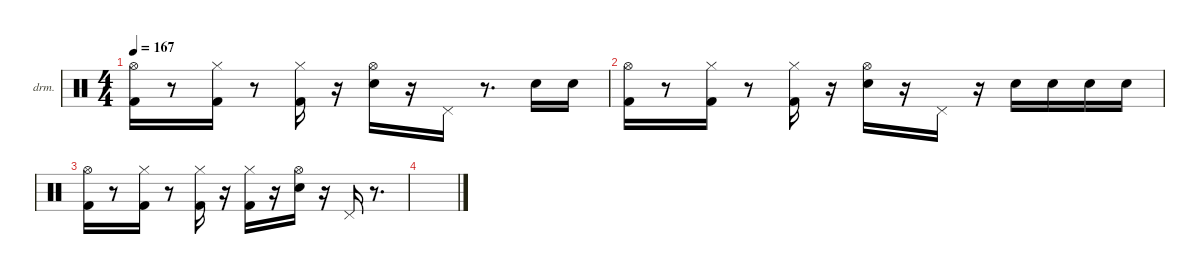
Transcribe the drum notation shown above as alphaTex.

\hideDynamics
\bracketExtendMode nobrackets
\firstSystemTrackNameOrientation horizontal
\otherSystemsTrackNameOrientation horizontal
\track ("Drums" "drm.") {instrument percussion}
\staff {score}
\articulation defaults
\ts (4 4)
\tempo 167
\clef neutral
\ks aminor
("Kick (hit) 2" "Hi-Hat (open)"{acc #}).16{dy fff} r.8 ("Kick (hit) 2" "Hi-Hat (closed)"{acc #}).16{dy ff} r.8 ("Kick (hit) 2" "Hi-Hat (closed)"{acc #}).16 r.16 ("Snare (hit) 2" "Hi-Hat (open)"{acc #}).16 r.16 "Pedal Hi-Hat (hit)"{acc #}.16 r.8{d} "Snare (hit) 2".16{dy mf} "Snare (hit) 2".16{dy p} |
("Hi-Hat (open)"{acc #} "Kick (hit) 2").16{dy fff} r.8 ("Kick (hit) 2" "Hi-Hat (closed)"{acc #}).16{dy ff} r.8 ("Kick (hit) 2" "Hi-Hat (closed)"{acc #}).16 r.16 ("Snare (hit) 2" "Hi-Hat (open)"{acc #}).16{dy fff} r.16 "Pedal Hi-Hat (hit)"{acc #}.16{dy ff} r.16 "Snare (hit) 2".16{dy f} "Snare (hit) 2".16{dy mf} "Snare (hit) 2".16{dy fff} "Snare (hit) 2".16 |
("Kick (hit) 2" "Hi-Hat (open)"{acc #}).16 r.8 ("Kick (hit) 2" "Hi-Hat (closed)"{acc #}).16{dy ff} r.8 ("Kick (hit) 2" "Hi-Hat (closed)"{acc #}).16{dy mf} r.16 ("Kick (hit) 2" "Hi-Hat (closed)"{acc #}).16{dy fff} r.16 ("Snare (hit) 2" "Hi-Hat (open)"{acc #}).16{dy ff} r.16 "Pedal Hi-Hat (hit)"{acc #}.16{dy fff} r.8{d} |
\ks c
